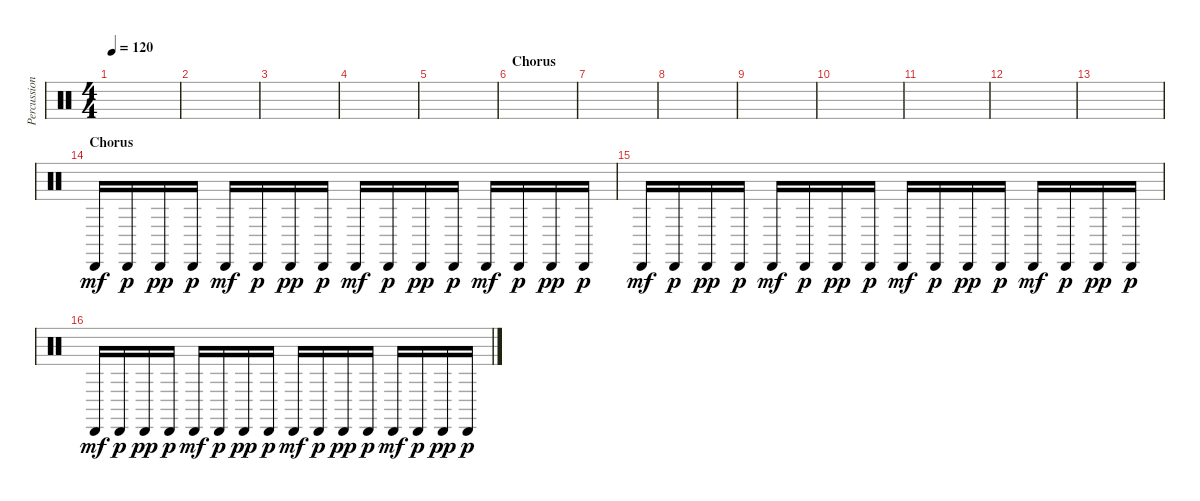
\track ("Percussion" "Percussion") {instrument percussion}
\staff {score}
\articulation defaults
\ts (4 4)
\tempo 120
\clef neutral
\ks c
|
|
|
|
|
\section ("" "Chorus")
|
|
|
|
|
|
|
|
\section ("" "Chorus")
"Cabasa (hit)".16{dy mf} "Cabasa (hit)".16{dy p} "Cabasa (hit)".16{dy pp} "Cabasa (hit)".16{dy p} "Cabasa (hit)".16{dy mf} "Cabasa (hit)".16{dy p} "Cabasa (hit)".16{dy pp} "Cabasa (hit)".16{dy p} "Cabasa (hit)".16{dy mf} "Cabasa (hit)".16{dy p} "Cabasa (hit)".16{dy pp} "Cabasa (hit)".16{dy p} "Cabasa (hit)".16{dy mf} "Cabasa (hit)".16{dy p} "Cabasa (hit)".16{dy pp} "Cabasa (hit)".16{dy p} |
"Cabasa (hit)".16{dy mf} "Cabasa (hit)".16{dy p} "Cabasa (hit)".16{dy pp} "Cabasa (hit)".16{dy p} "Cabasa (hit)".16{dy mf} "Cabasa (hit)".16{dy p} "Cabasa (hit)".16{dy pp} "Cabasa (hit)".16{dy p} "Cabasa (hit)".16{dy mf} "Cabasa (hit)".16{dy p} "Cabasa (hit)".16{dy pp} "Cabasa (hit)".16{dy p} "Cabasa (hit)".16{dy mf} "Cabasa (hit)".16{dy p} "Cabasa (hit)".16{dy pp} "Cabasa (hit)".16{dy p} |
"Cabasa (hit)".16{dy mf} "Cabasa (hit)".16{dy p} "Cabasa (hit)".16{dy pp} "Cabasa (hit)".16{dy p} "Cabasa (hit)".16{dy mf} "Cabasa (hit)".16{dy p} "Cabasa (hit)".16{dy pp} "Cabasa (hit)".16{dy p} "Cabasa (hit)".16{dy mf} "Cabasa (hit)".16{dy p} "Cabasa (hit)".16{dy pp} "Cabasa (hit)".16{dy p} "Cabasa (hit)".16{dy mf} "Cabasa (hit)".16{dy p} "Cabasa (hit)".16{dy pp} "Cabasa (hit)".16{dy p}
